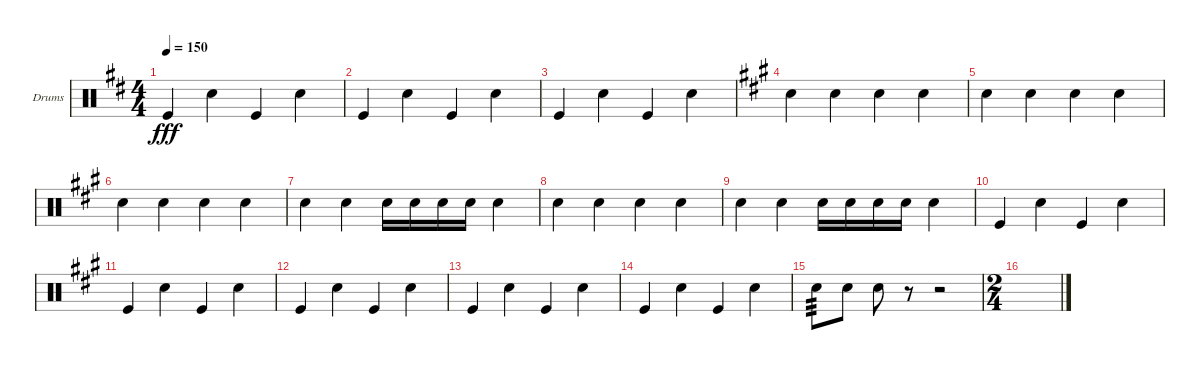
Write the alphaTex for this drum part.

\defaultSystemsLayout 4
\bracketExtendMode groupsimilarinstruments
\firstSystemTrackNameOrientation horizontal
\otherSystemsTrackNameOrientation horizontal
\track ("Drumkit" "Drums") {instrument percussion}
\staff {score}
\articulation defaults
\ts (4 4)
\tempo 150
\clef neutral
\scale
0.333333
\ks d "Kick (hit)".4{dy fff} "Snare (hit) 2".4 "Kick (hit)".4 "Snare (hit) 2".4
|
\scale
0.333333 "Kick (hit)".4 "Snare (hit) 2".4 "Kick (hit)".4 "Snare (hit) 2".4 |
\scale
0.333333 "Kick (hit)".4 "Snare (hit) 2".4 "Kick (hit)".4 "Snare (hit) 2".4 |
\scale
0.474654
\ks a "Snare (hit) 2".4 "Snare (hit) 2".4 "Snare (hit) 2".4 "Snare (hit) 2".4
|
\scale
0.262673 "Snare (hit) 2".4 "Snare (hit) 2".4 "Snare (hit) 2".4 "Snare (hit) 2".4 |
\scale
0.262673 "Snare (hit) 2".4 "Snare (hit) 2".4 "Snare (hit) 2".4 "Snare (hit) 2".4 |
\scale
0.333333 "Snare (hit) 2".4 "Snare (hit) 2".4 "Snare (hit) 2".16 "Snare (hit) 2".16 "Snare (hit) 2".16 "Snare (hit) 2".16 "Snare (hit) 2".4 |
\scale
0.333333 "Snare (hit) 2".4 "Snare (hit) 2".4 "Snare (hit) 2".4 "Snare (hit) 2".4 |
\scale
0.333333 "Snare (hit) 2".4 "Snare (hit) 2".4 "Snare (hit) 2".16 "Snare (hit) 2".16 "Snare (hit) 2".16 "Snare (hit) 2".16 "Snare (hit) 2".4 |
\scale
0.333333 "Kick (hit)".4 "Snare (hit) 2".4 "Kick (hit)".4 "Snare (hit) 2".4 |
\scale
0.333333 "Kick (hit)".4 "Snare (hit) 2".4 "Kick (hit)".4 "Snare (hit) 2".4 |
\scale
0.333333 "Kick (hit)".4 "Snare (hit) 2".4 "Kick (hit)".4 "Snare (hit) 2".4 |
\scale
0.333333 "Kick (hit)".4 "Snare (hit) 2".4 "Kick (hit)".4 "Snare (hit) 2".4 |
\scale
0.333333 "Kick (hit)".4 "Snare (hit) 2".4 "Kick (hit)".4 "Snare (hit) 2".4 |
\scale
0.333333 "Snare (hit) 2".8{tp 3} "Snare (hit) 2".8 "Snare (hit) 2".8 r.8 r.2 |
\ts (2 4)
\scale
0.396875
